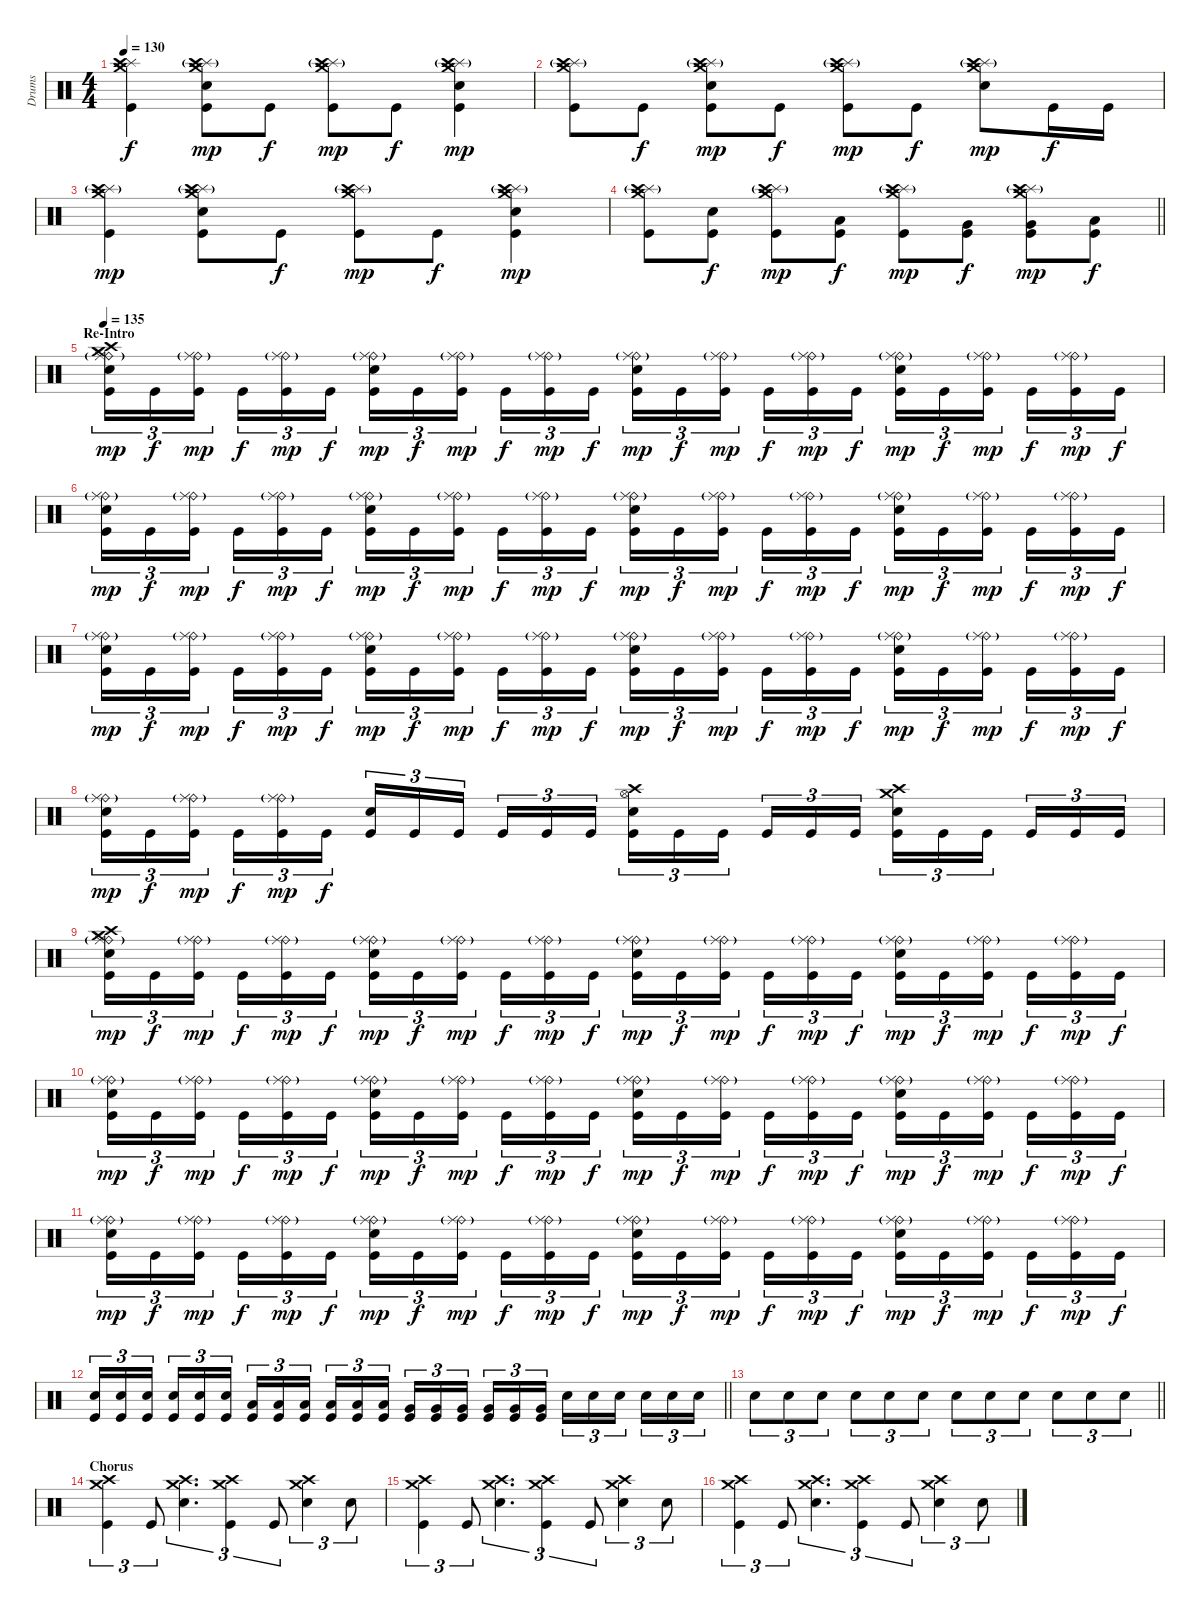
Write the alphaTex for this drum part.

\track ("Drums" "Drums") {instrument percussion}
\staff {score}
\articulation defaults
\ts (4 4)
\tempo 130
\clef neutral
\ks c
("Splash (hit)" "Crash medium (hit)" "Crash high (hit)" "Kick (hit)").4{dy f} ("Splash (hit)" "Crash medium (hit)" "Crash high (hit)"{g} "Electric Snare (hit)" "Kick (hit)").8{dy mp} "Kick (hit)".8{dy f} ("Splash (hit)" "Crash medium (hit)" "Crash high (hit)"{g} "Kick (hit)").8{dy mp} "Kick (hit)".8{dy f} ("Splash (hit)" "Crash medium (hit)" "Crash high (hit)"{g} "Electric Snare (hit)" "Kick (hit)").4{dy mp} |
("Splash (hit)" "Crash medium (hit)" "Crash high (hit)"{g} "Kick (hit)").8 "Kick (hit)".8{dy f} ("Splash (hit)" "Crash medium (hit)" "Crash high (hit)"{g} "Electric Snare (hit)" "Kick (hit)").8{dy mp} "Kick (hit)".8{dy f} ("Splash (hit)" "Crash medium (hit)" "Crash high (hit)"{g} "Kick (hit)").8{dy mp} "Kick (hit)".8{dy f} ("Splash (hit)" "Crash medium (hit)" "Crash high (hit)"{g} "Electric Snare (hit)").8{dy mp} "Kick (hit)".16{dy f} "Kick (hit)".16 |
("Splash (hit)" "Crash medium (hit)" "Crash high (hit)"{g} "Kick (hit)").4{dy mp} ("Splash (hit)" "Crash medium (hit)" "Crash high (hit)"{g} "Electric Snare (hit)" "Kick (hit)").8 "Kick (hit)".8{dy f} ("Splash (hit)" "Crash medium (hit)" "Crash high (hit)"{g} "Kick (hit)").8{dy mp} "Kick (hit)".8{dy f} ("Splash (hit)" "Crash medium (hit)" "Crash high (hit)"{g} "Electric Snare (hit)" "Kick (hit)").4{dy mp} |
\barLineRight lightlight
("Splash (hit)" "Crash medium (hit)" "Crash high (hit)"{g} "Kick (hit)").8 ("Electric Snare (hit)" "Kick (hit)").8{dy f} ("Splash (hit)" "Crash medium (hit)" "Crash high (hit)"{g} "Kick (hit)").8{dy mp} ("Low Floor Tom (hit)" "Kick (hit)").8{dy f} ("Splash (hit)" "Crash medium (hit)" "Crash high (hit)"{g} "Kick (hit)").8{dy mp} ("Very Low Tom (hit)" "Kick (hit)").8{dy f} ("Splash (hit)" "Crash medium (hit)" "Crash high (hit)"{g} "Very Low Tom (hit)" "Kick (hit)").8{dy mp} ("Low Floor Tom (hit)" "Kick (hit)").8{dy f} |
\section ("" "Re-Intro")
\tempo 135
("Crash high (hit)" "Ride (bell)" "Ride (middle)"{g} "Crash medium (hit)" "Electric Snare (hit)" "Kick (hit)").16{tu (3 2) dy mp} "Kick (hit)".16{tu (3 2) dy f} ("Ride (bell)" "Ride (middle)"{g} "Kick (hit)").16{tu (3 2) dy mp beam splitsecondary} "Kick (hit)".16{tu (3 2) dy f} ("Ride (bell)" "Ride (middle)"{g} "Kick (hit)").16{tu (3 2) dy mp} "Kick (hit)".16{tu (3 2) dy f} ("Ride (bell)" "Ride (middle)"{g} "Electric Snare (hit)" "Kick (hit)").16{tu (3 2) dy mp} "Kick (hit)".16{tu (3 2) dy f} ("Ride (bell)" "Ride (middle)"{g} "Kick (hit)").16{tu (3 2) dy mp beam splitsecondary} "Kick (hit)".16{tu (3 2) dy f} ("Ride (bell)" "Ride (middle)"{g} "Kick (hit)").16{tu (3 2) dy mp} "Kick (hit)".16{tu (3 2) dy f} ("Ride (bell)" "Ride (middle)"{g} "Electric Snare (hit)" "Kick (hit)").16{tu (3 2) dy mp} "Kick (hit)".16{tu (3 2) dy f} ("Ride (bell)" "Ride (middle)"{g} "Kick (hit)").16{tu (3 2) dy mp beam splitsecondary} "Kick (hit)".16{tu (3 2) dy f} ("Ride (bell)" "Ride (middle)"{g} "Kick (hit)").16{tu (3 2) dy mp} "Kick (hit)".16{tu (3 2) dy f} ("Ride (bell)" "Ride (middle)"{g} "Electric Snare (hit)" "Kick (hit)").16{tu (3 2) dy mp} "Kick (hit)".16{tu (3 2) dy f} ("Ride (bell)" "Ride (middle)"{g} "Kick (hit)").16{tu (3 2) dy mp beam splitsecondary} "Kick (hit)".16{tu (3 2) dy f} ("Ride (bell)" "Ride (middle)"{g} "Kick (hit)").16{tu (3 2) dy mp} "Kick (hit)".16{tu (3 2) dy f} |
("Ride (bell)" "Ride (middle)"{g} "Electric Snare (hit)" "Kick (hit)").16{tu (3 2) dy mp} "Kick (hit)".16{tu (3 2) dy f} ("Ride (bell)" "Ride (middle)"{g} "Kick (hit)").16{tu (3 2) dy mp beam splitsecondary} "Kick (hit)".16{tu (3 2) dy f} ("Ride (bell)" "Ride (middle)"{g} "Kick (hit)").16{tu (3 2) dy mp} "Kick (hit)".16{tu (3 2) dy f} ("Ride (bell)" "Ride (middle)"{g} "Electric Snare (hit)" "Kick (hit)").16{tu (3 2) dy mp} "Kick (hit)".16{tu (3 2) dy f} ("Ride (bell)" "Ride (middle)"{g} "Kick (hit)").16{tu (3 2) dy mp beam splitsecondary} "Kick (hit)".16{tu (3 2) dy f} ("Ride (bell)" "Ride (middle)"{g} "Kick (hit)").16{tu (3 2) dy mp} "Kick (hit)".16{tu (3 2) dy f} ("Ride (bell)" "Ride (middle)"{g} "Electric Snare (hit)" "Kick (hit)").16{tu (3 2) dy mp} "Kick (hit)".16{tu (3 2) dy f} ("Ride (bell)" "Ride (middle)"{g} "Kick (hit)").16{tu (3 2) dy mp beam splitsecondary} "Kick (hit)".16{tu (3 2) dy f} ("Ride (bell)" "Ride (middle)"{g} "Kick (hit)").16{tu (3 2) dy mp} "Kick (hit)".16{tu (3 2) dy f} ("Ride (bell)" "Ride (middle)"{g} "Electric Snare (hit)" "Kick (hit)").16{tu (3 2) dy mp} "Kick (hit)".16{tu (3 2) dy f} ("Ride (bell)" "Ride (middle)"{g} "Kick (hit)").16{tu (3 2) dy mp beam splitsecondary} "Kick (hit)".16{tu (3 2) dy f} ("Ride (bell)" "Ride (middle)"{g} "Kick (hit)").16{tu (3 2) dy mp} "Kick (hit)".16{tu (3 2) dy f} |
("Ride (bell)" "Ride (middle)"{g} "Electric Snare (hit)" "Kick (hit)").16{tu (3 2) dy mp} "Kick (hit)".16{tu (3 2) dy f} ("Ride (bell)" "Ride (middle)"{g} "Kick (hit)").16{tu (3 2) dy mp beam splitsecondary} "Kick (hit)".16{tu (3 2) dy f} ("Ride (bell)" "Ride (middle)"{g} "Kick (hit)").16{tu (3 2) dy mp} "Kick (hit)".16{tu (3 2) dy f} ("Ride (bell)" "Ride (middle)"{g} "Electric Snare (hit)" "Kick (hit)").16{tu (3 2) dy mp} "Kick (hit)".16{tu (3 2) dy f} ("Ride (bell)" "Ride (middle)"{g} "Kick (hit)").16{tu (3 2) dy mp beam splitsecondary} "Kick (hit)".16{tu (3 2) dy f} ("Ride (bell)" "Ride (middle)"{g} "Kick (hit)").16{tu (3 2) dy mp} "Kick (hit)".16{tu (3 2) dy f} ("Ride (bell)" "Ride (middle)"{g} "Electric Snare (hit)" "Kick (hit)").16{tu (3 2) dy mp} "Kick (hit)".16{tu (3 2) dy f} ("Ride (bell)" "Ride (middle)"{g} "Kick (hit)").16{tu (3 2) dy mp beam splitsecondary} "Kick (hit)".16{tu (3 2) dy f} ("Ride (bell)" "Ride (middle)"{g} "Kick (hit)").16{tu (3 2) dy mp} "Kick (hit)".16{tu (3 2) dy f} ("Ride (bell)" "Ride (middle)"{g} "Electric Snare (hit)" "Kick (hit)").16{tu (3 2) dy mp} "Kick (hit)".16{tu (3 2) dy f} ("Ride (bell)" "Ride (middle)"{g} "Kick (hit)").16{tu (3 2) dy mp beam splitsecondary} "Kick (hit)".16{tu (3 2) dy f} ("Ride (bell)" "Ride (middle)"{g} "Kick (hit)").16{tu (3 2) dy mp} "Kick (hit)".16{tu (3 2) dy f} |
("Ride (bell)" "Ride (middle)"{g} "Electric Snare (hit)" "Kick (hit)").16{tu (3 2) dy mp} "Kick (hit)".16{tu (3 2) dy f} ("Ride (bell)" "Ride (middle)"{g} "Kick (hit)").16{tu (3 2) dy mp beam splitsecondary} "Kick (hit)".16{tu (3 2) dy f} ("Ride (bell)" "Ride (middle)"{g} "Kick (hit)").16{tu (3 2) dy mp} "Kick (hit)".16{tu (3 2) dy f} ("Electric Snare (hit)" "Kick (hit)").16{tu (3 2)} "Kick (hit)".16{tu (3 2)} "Kick (hit)".16{tu (3 2) beam splitsecondary} "Kick (hit)".16{tu (3 2)} "Kick (hit)".16{tu (3 2)} "Kick (hit)".16{tu (3 2)} ("Hi-Hat (open)" "Crash high (hit)" "Electric Snare (hit)" "Kick (hit)").16{tu (3 2)} "Kick (hit)".16{tu (3 2)} "Kick (hit)".16{tu (3 2) beam splitsecondary} "Kick (hit)".16{tu (3 2)} "Kick (hit)".16{tu (3 2)} "Kick (hit)".16{tu (3 2)} ("Crash medium (hit)" "Crash high (hit)" "Electric Snare (hit)" "Kick (hit)").16{tu (3 2)} "Kick (hit)".16{tu (3 2)} "Kick (hit)".16{tu (3 2) beam splitsecondary} "Kick (hit)".16{tu (3 2)} "Kick (hit)".16{tu (3 2)} "Kick (hit)".16{tu (3 2)} |
("Crash high (hit)" "Ride (bell)" "Ride (middle)"{g} "Crash medium (hit)" "Electric Snare (hit)" "Kick (hit)").16{tu (3 2) dy mp} "Kick (hit)".16{tu (3 2) dy f} ("Ride (bell)" "Ride (middle)"{g} "Kick (hit)").16{tu (3 2) dy mp beam splitsecondary} "Kick (hit)".16{tu (3 2) dy f} ("Ride (bell)" "Ride (middle)"{g} "Kick (hit)").16{tu (3 2) dy mp} "Kick (hit)".16{tu (3 2) dy f} ("Ride (bell)" "Ride (middle)"{g} "Electric Snare (hit)" "Kick (hit)").16{tu (3 2) dy mp} "Kick (hit)".16{tu (3 2) dy f} ("Ride (bell)" "Ride (middle)"{g} "Kick (hit)").16{tu (3 2) dy mp beam splitsecondary} "Kick (hit)".16{tu (3 2) dy f} ("Ride (bell)" "Ride (middle)"{g} "Kick (hit)").16{tu (3 2) dy mp} "Kick (hit)".16{tu (3 2) dy f} ("Ride (bell)" "Ride (middle)"{g} "Electric Snare (hit)" "Kick (hit)").16{tu (3 2) dy mp} "Kick (hit)".16{tu (3 2) dy f} ("Ride (bell)" "Ride (middle)"{g} "Kick (hit)").16{tu (3 2) dy mp beam splitsecondary} "Kick (hit)".16{tu (3 2) dy f} ("Ride (bell)" "Ride (middle)"{g} "Kick (hit)").16{tu (3 2) dy mp} "Kick (hit)".16{tu (3 2) dy f} ("Ride (bell)" "Ride (middle)"{g} "Electric Snare (hit)" "Kick (hit)").16{tu (3 2) dy mp} "Kick (hit)".16{tu (3 2) dy f} ("Ride (bell)" "Ride (middle)"{g} "Kick (hit)").16{tu (3 2) dy mp beam splitsecondary} "Kick (hit)".16{tu (3 2) dy f} ("Ride (bell)" "Ride (middle)"{g} "Kick (hit)").16{tu (3 2) dy mp} "Kick (hit)".16{tu (3 2) dy f} |
("Ride (bell)" "Ride (middle)"{g} "Electric Snare (hit)" "Kick (hit)").16{tu (3 2) dy mp} "Kick (hit)".16{tu (3 2) dy f} ("Ride (bell)" "Ride (middle)"{g} "Kick (hit)").16{tu (3 2) dy mp beam splitsecondary} "Kick (hit)".16{tu (3 2) dy f} ("Ride (bell)" "Ride (middle)"{g} "Kick (hit)").16{tu (3 2) dy mp} "Kick (hit)".16{tu (3 2) dy f} ("Ride (bell)" "Ride (middle)"{g} "Electric Snare (hit)" "Kick (hit)").16{tu (3 2) dy mp} "Kick (hit)".16{tu (3 2) dy f} ("Ride (bell)" "Ride (middle)"{g} "Kick (hit)").16{tu (3 2) dy mp beam splitsecondary} "Kick (hit)".16{tu (3 2) dy f} ("Ride (bell)" "Ride (middle)"{g} "Kick (hit)").16{tu (3 2) dy mp} "Kick (hit)".16{tu (3 2) dy f} ("Ride (bell)" "Ride (middle)"{g} "Electric Snare (hit)" "Kick (hit)").16{tu (3 2) dy mp} "Kick (hit)".16{tu (3 2) dy f} ("Ride (bell)" "Ride (middle)"{g} "Kick (hit)").16{tu (3 2) dy mp beam splitsecondary} "Kick (hit)".16{tu (3 2) dy f} ("Ride (bell)" "Ride (middle)"{g} "Kick (hit)").16{tu (3 2) dy mp} "Kick (hit)".16{tu (3 2) dy f} ("Ride (bell)" "Ride (middle)"{g} "Electric Snare (hit)" "Kick (hit)").16{tu (3 2) dy mp} "Kick (hit)".16{tu (3 2) dy f} ("Ride (bell)" "Ride (middle)"{g} "Kick (hit)").16{tu (3 2) dy mp beam splitsecondary} "Kick (hit)".16{tu (3 2) dy f} ("Ride (bell)" "Ride (middle)"{g} "Kick (hit)").16{tu (3 2) dy mp} "Kick (hit)".16{tu (3 2) dy f} |
("Ride (bell)" "Ride (middle)"{g} "Electric Snare (hit)" "Kick (hit)").16{tu (3 2) dy mp} "Kick (hit)".16{tu (3 2) dy f} ("Ride (bell)" "Ride (middle)"{g} "Kick (hit)").16{tu (3 2) dy mp beam splitsecondary} "Kick (hit)".16{tu (3 2) dy f} ("Ride (bell)" "Ride (middle)"{g} "Kick (hit)").16{tu (3 2) dy mp} "Kick (hit)".16{tu (3 2) dy f} ("Ride (bell)" "Ride (middle)"{g} "Electric Snare (hit)" "Kick (hit)").16{tu (3 2) dy mp} "Kick (hit)".16{tu (3 2) dy f} ("Ride (bell)" "Ride (middle)"{g} "Kick (hit)").16{tu (3 2) dy mp beam splitsecondary} "Kick (hit)".16{tu (3 2) dy f} ("Ride (bell)" "Ride (middle)"{g} "Kick (hit)").16{tu (3 2) dy mp} "Kick (hit)".16{tu (3 2) dy f} ("Ride (bell)" "Ride (middle)"{g} "Electric Snare (hit)" "Kick (hit)").16{tu (3 2) dy mp} "Kick (hit)".16{tu (3 2) dy f} ("Ride (bell)" "Ride (middle)"{g} "Kick (hit)").16{tu (3 2) dy mp beam splitsecondary} "Kick (hit)".16{tu (3 2) dy f} ("Ride (bell)" "Ride (middle)"{g} "Kick (hit)").16{tu (3 2) dy mp} "Kick (hit)".16{tu (3 2) dy f} ("Ride (bell)" "Ride (middle)"{g} "Electric Snare (hit)" "Kick (hit)").16{tu (3 2) dy mp} "Kick (hit)".16{tu (3 2) dy f} ("Ride (bell)" "Ride (middle)"{g} "Kick (hit)").16{tu (3 2) dy mp beam splitsecondary} "Kick (hit)".16{tu (3 2) dy f} ("Ride (bell)" "Ride (middle)"{g} "Kick (hit)").16{tu (3 2) dy mp} "Kick (hit)".16{tu (3 2) dy f} |
\barLineRight lightlight
("Kick (hit)" "Electric Snare (hit)").16{tu (3 2)} ("Kick (hit)" "Electric Snare (hit)").16{tu (3 2)} ("Kick (hit)" "Electric Snare (hit)").16{tu (3 2) beam splitsecondary} ("Kick (hit)" "Electric Snare (hit)").16{tu (3 2)} ("Kick (hit)" "Electric Snare (hit)").16{tu (3 2)} ("Kick (hit)" "Electric Snare (hit)").16{tu (3 2)} ("Kick (hit)" "Low Tom (hit)").16{tu (3 2)} ("Kick (hit)" "Low Tom (hit)").16{tu (3 2)} ("Kick (hit)" "Low Tom (hit)").16{tu (3 2) beam splitsecondary} ("Kick (hit)" "Low Tom (hit)").16{tu (3 2)} ("Kick (hit)" "Low Tom (hit)").16{tu (3 2)} ("Kick (hit)" "Low Tom (hit)").16{tu (3 2)} ("Kick (hit)" "Very Low Tom (hit)").16{tu (3 2)} ("Kick (hit)" "Very Low Tom (hit)").16{tu (3 2)} ("Kick (hit)" "Very Low Tom (hit)").16{tu (3 2) beam splitsecondary} ("Kick (hit)" "Very Low Tom (hit)").16{tu (3 2)} ("Kick (hit)" "Very Low Tom (hit)").16{tu (3 2)} ("Kick (hit)" "Very Low Tom (hit)").16{tu (3 2)} "Electric Snare (hit)".16{tu (3 2)} "Electric Snare (hit)".16{tu (3 2)} "Electric Snare (hit)".16{tu (3 2) beam splitsecondary} "Electric Snare (hit)".16{tu (3 2)} "Electric Snare (hit)".16{tu (3 2)} "Electric Snare (hit)".16{tu (3 2)} |
\barLineRight lightlight "Electric Snare (hit)".8{tu (3 2)} "Electric Snare (hit)".8{tu (3 2)} "Electric Snare (hit)".8{tu (3 2)} "Electric Snare (hit)".8{tu (3 2)} "Electric Snare (hit)".8{tu (3 2)} "Electric Snare (hit)".8{tu (3 2)} "Electric Snare (hit)".8{tu (3 2)} "Electric Snare (hit)".8{tu (3 2)} "Electric Snare (hit)".8{tu (3 2)} "Electric Snare (hit)".8{tu (3 2)} "Electric Snare (hit)".8{tu (3 2)} "Electric Snare (hit)".8{tu (3 2)}
|
\section ("" "Chorus")
("Crash medium (hit)" "Crash high (hit)" "Kick (hit)").4{tu (3 2)} "Kick (hit)".8{tu (3 2)} ("Crash medium (hit)" "Crash high (hit)" "Electric Snare (hit)").4{d tu (3 2)} ("Crash medium (hit)" "Crash high (hit)" "Kick (hit)").4{tu (3 2)} "Kick (hit)".8{tu (3 2)} ("Crash medium (hit)" "Crash high (hit)" "Electric Snare (hit)").4{tu (3 2)} "Electric Snare (hit)".8{tu (3 2)} |
("Crash medium (hit)" "Crash high (hit)" "Kick (hit)").4{tu (3 2)} "Kick (hit)".8{tu (3 2)} ("Crash medium (hit)" "Crash high (hit)" "Electric Snare (hit)").4{d tu (3 2)} ("Crash medium (hit)" "Crash high (hit)" "Kick (hit)").4{tu (3 2)} "Kick (hit)".8{tu (3 2)} ("Crash medium (hit)" "Crash high (hit)" "Electric Snare (hit)").4{tu (3 2)} "Electric Snare (hit)".8{tu (3 2)} |
("Crash medium (hit)" "Crash high (hit)" "Kick (hit)").4{tu (3 2)} "Kick (hit)".8{tu (3 2)} ("Crash medium (hit)" "Crash high (hit)" "Electric Snare (hit)").4{d tu (3 2)} ("Crash medium (hit)" "Crash high (hit)" "Kick (hit)").4{tu (3 2)} "Kick (hit)".8{tu (3 2)} ("Crash medium (hit)" "Crash high (hit)" "Electric Snare (hit)").4{tu (3 2)} "Electric Snare (hit)".8{tu (3 2)}
